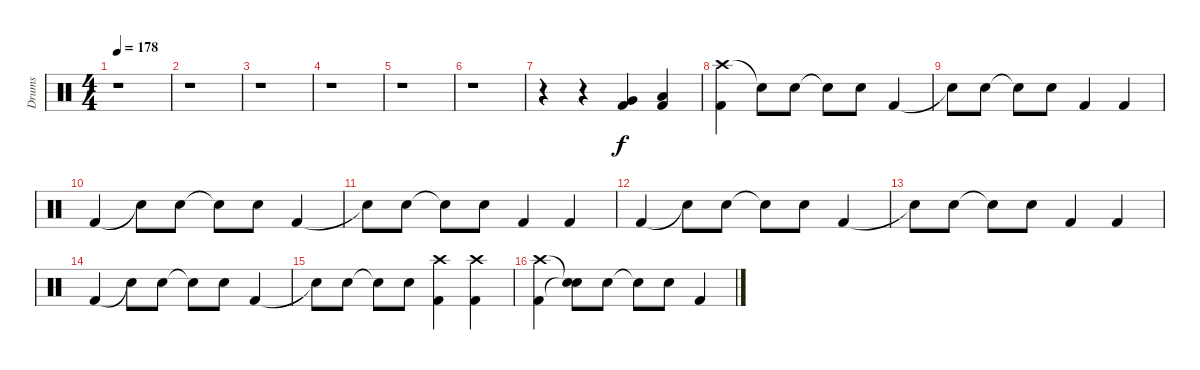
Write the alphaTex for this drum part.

\track ("Drums" "Drums") {instrument percussion}
\staff {score}
\articulation defaults
\ts (4 4)
\tempo 178
\clef neutral
\ks c
r.1{dy f} |
r.1 |
r.1 |
r.1 |
r.1 |
r.1 |
r.4 r.4 ("Very Low Tom (hit)" "Kick (hit) 2").4 ("Low Floor Tom (hit)" "Kick (hit) 2").4 |
("Crash high (hit)" "Kick (hit) 2").4 "Snare (hit)"{t}.8 "Electric Snare (hit)".8 "Snare (hit)"{t}.8 "Electric Snare (hit)".8 "Kick (hit) 2".4 |
"Snare (hit)"{t}.8 "Electric Snare (hit)".8 "Snare (hit)"{t}.8 "Electric Snare (hit)".8 "Kick (hit) 2".4 "Kick (hit) 2".4 |
"Kick (hit) 2".4 "Snare (hit)"{t}.8 "Electric Snare (hit)".8 "Snare (hit)"{t}.8 "Electric Snare (hit)".8 "Kick (hit) 2".4 |
"Snare (hit)"{t}.8 "Electric Snare (hit)".8 "Snare (hit)"{t}.8 "Electric Snare (hit)".8 "Kick (hit) 2".4 "Kick (hit) 2".4 |
"Kick (hit) 2".4 "Snare (hit)"{t}.8 "Electric Snare (hit)".8 "Snare (hit)"{t}.8 "Electric Snare (hit)".8 "Kick (hit) 2".4 |
"Snare (hit)"{t}.8 "Electric Snare (hit)".8 "Snare (hit)"{t}.8 "Electric Snare (hit)".8 "Kick (hit) 2".4 "Kick (hit) 2".4 |
"Kick (hit) 2".4 "Snare (hit)"{t}.8 "Electric Snare (hit)".8 "Snare (hit)"{t}.8 "Electric Snare (hit)".8 "Kick (hit) 2".4 |
"Snare (hit)"{t}.8 "Electric Snare (hit)".8 "Snare (hit)"{t}.8 "Electric Snare (hit)".8 ("Crash high (hit)" "Kick (hit) 2").4 ("Crash high (hit)" "Kick (hit) 2").4 |
("Crash high (hit)" "Kick (hit) 2").4 ("Snare (hit)"{t} "Snare (hit)"{t}).8 "Electric Snare (hit)".8 "Snare (hit)"{t}.8 "Electric Snare (hit)".8 "Kick (hit) 2".4
